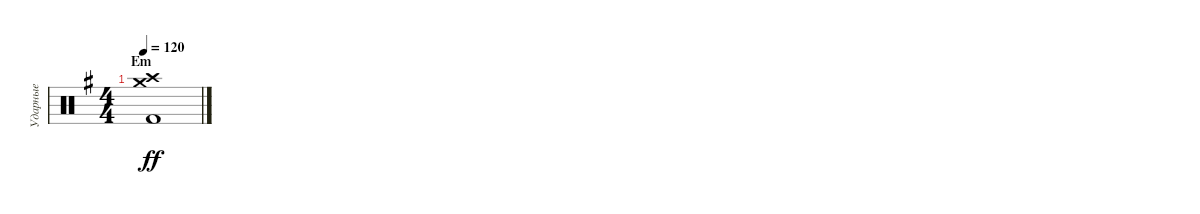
\track ("Ударные" "Ударные") {instrument percussion}
\staff {score}
\articulation defaults
\ts (4 4)
\section ("" "Em")
\tempo 120
\clef neutral
\ks eminor
("Kick (hit) 2" "Crash medium (hit)" "Crash high (hit)").1{dy ff}
